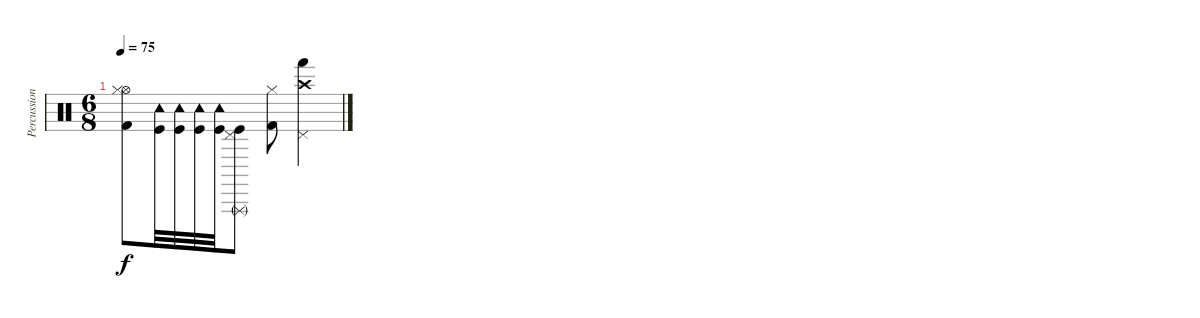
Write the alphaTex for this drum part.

\track ("Percussion" "Percussion") {instrument percussion}
\staff {score}
\articulation defaults
\ts (6 8)
\tempo 75
\clef neutral
\ks c
("Hi-Hat (open)" "Hi-Hat (closed)" "Kick (hit) 2").8{dy f} ("Tambourine (hit)" "Kick (hit)").32 ("Tambourine (hit)" "Kick (hit)").32 ("Tambourine (hit)" "Kick (hit)").32 ("Tambourine (hit)" "Kick (hit)").32 ("Kick (hit)" "Triangle (rnute)" "Pedal Hi-Hat (hit)").8 ("Hi-Hat (closed)" "Kick (hit) 2").8 ("Pedal Hi-Hat (hit)" "Hand (hit)" "Crash high (hit)").4
